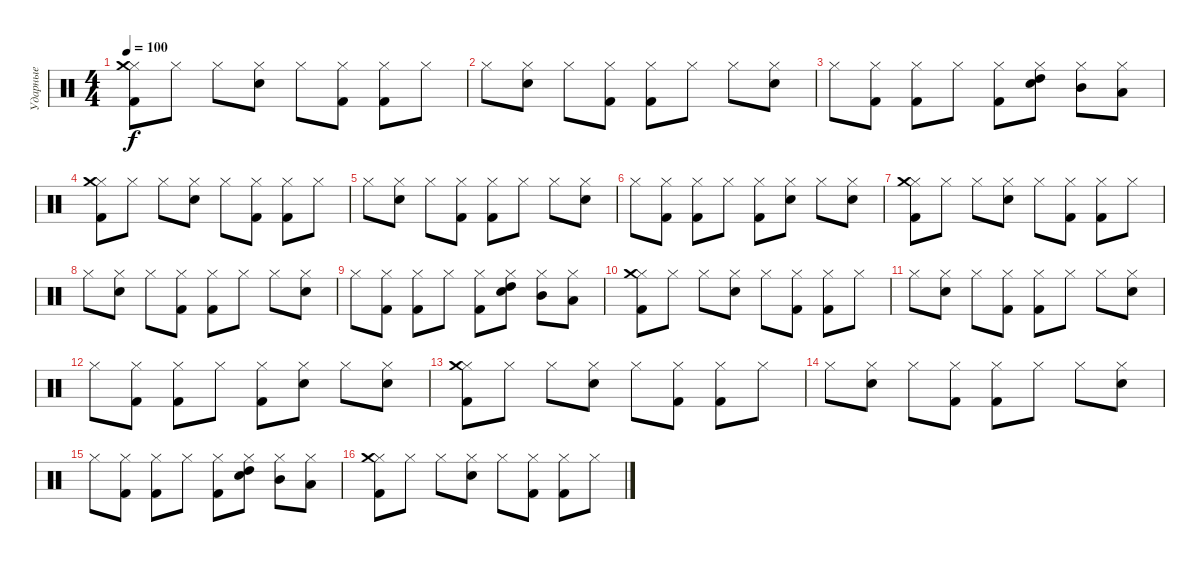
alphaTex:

\track ("Ударные" "Ударные") {instrument percussion}
\staff {score}
\articulation defaults
\ts (4 4)
\tempo 100
\clef neutral
\ks c
("Hi-Hat (closed)" "Kick (hit) 2" "Crash medium (hit)").8{dy f} "Hi-Hat (closed)".8 "Hi-Hat (closed)".8 ("Hi-Hat (closed)" "Electric Snare (hit)").8 "Hi-Hat (closed)".8 ("Hi-Hat (closed)" "Kick (hit) 2").8 ("Hi-Hat (closed)" "Kick (hit) 2").8 "Hi-Hat (closed)".8 |
"Hi-Hat (closed)".8 ("Hi-Hat (closed)" "Electric Snare (hit)").8 "Hi-Hat (closed)".8 ("Hi-Hat (closed)" "Kick (hit) 2").8 ("Hi-Hat (closed)" "Kick (hit) 2").8 "Hi-Hat (closed)".8 "Hi-Hat (closed)".8 ("Hi-Hat (closed)" "Electric Snare (hit)").8 |
"Hi-Hat (closed)".8 ("Hi-Hat (closed)" "Kick (hit) 2").8 ("Hi-Hat (closed)" "Kick (hit) 2").8 "Hi-Hat (closed)".8 ("Hi-Hat (closed)" "Kick (hit) 2").8 ("Hi-Hat (closed)" "Electric Snare (hit)" "High Tom (hit)").8 ("Hi-Hat (closed)" "Mid Tom (hit)").8 ("Hi-Hat (closed)" "Low Tom (hit)").8 |
("Hi-Hat (closed)" "Kick (hit) 2" "Crash medium (hit)").8 "Hi-Hat (closed)".8 "Hi-Hat (closed)".8 ("Hi-Hat (closed)" "Electric Snare (hit)").8 "Hi-Hat (closed)".8 ("Hi-Hat (closed)" "Kick (hit) 2").8 ("Hi-Hat (closed)" "Kick (hit) 2").8 "Hi-Hat (closed)".8 |
"Hi-Hat (closed)".8 ("Hi-Hat (closed)" "Electric Snare (hit)").8 "Hi-Hat (closed)".8 ("Hi-Hat (closed)" "Kick (hit) 2").8 ("Hi-Hat (closed)" "Kick (hit) 2").8 "Hi-Hat (closed)".8 "Hi-Hat (closed)".8 ("Hi-Hat (closed)" "Electric Snare (hit)").8 |
"Hi-Hat (closed)".8 ("Hi-Hat (closed)" "Kick (hit) 2").8 ("Hi-Hat (closed)" "Kick (hit) 2").8 "Hi-Hat (closed)".8 ("Hi-Hat (closed)" "Kick (hit) 2").8 ("Hi-Hat (closed)" "Electric Snare (hit)").8 "Hi-Hat (closed)".8 ("Hi-Hat (closed)" "Electric Snare (hit)").8 |
("Hi-Hat (closed)" "Kick (hit) 2" "Crash medium (hit)").8 "Hi-Hat (closed)".8 "Hi-Hat (closed)".8 ("Hi-Hat (closed)" "Electric Snare (hit)").8 "Hi-Hat (closed)".8 ("Hi-Hat (closed)" "Kick (hit) 2").8 ("Hi-Hat (closed)" "Kick (hit) 2").8 "Hi-Hat (closed)".8 |
"Hi-Hat (closed)".8 ("Hi-Hat (closed)" "Electric Snare (hit)").8 "Hi-Hat (closed)".8 ("Hi-Hat (closed)" "Kick (hit) 2").8 ("Hi-Hat (closed)" "Kick (hit) 2").8 "Hi-Hat (closed)".8 "Hi-Hat (closed)".8 ("Hi-Hat (closed)" "Electric Snare (hit)").8 |
"Hi-Hat (closed)".8 ("Hi-Hat (closed)" "Kick (hit) 2").8 ("Hi-Hat (closed)" "Kick (hit) 2").8 "Hi-Hat (closed)".8 ("Hi-Hat (closed)" "Kick (hit) 2").8 ("Hi-Hat (closed)" "Electric Snare (hit)" "High Tom (hit)").8 ("Hi-Hat (closed)" "Mid Tom (hit)").8 ("Hi-Hat (closed)" "Low Tom (hit)").8 |
("Hi-Hat (closed)" "Kick (hit) 2" "Crash medium (hit)").8 "Hi-Hat (closed)".8 "Hi-Hat (closed)".8 ("Hi-Hat (closed)" "Electric Snare (hit)").8 "Hi-Hat (closed)".8 ("Hi-Hat (closed)" "Kick (hit) 2").8 ("Hi-Hat (closed)" "Kick (hit) 2").8 "Hi-Hat (closed)".8 |
"Hi-Hat (closed)".8 ("Hi-Hat (closed)" "Electric Snare (hit)").8 "Hi-Hat (closed)".8 ("Hi-Hat (closed)" "Kick (hit) 2").8 ("Hi-Hat (closed)" "Kick (hit) 2").8 "Hi-Hat (closed)".8 "Hi-Hat (closed)".8 ("Hi-Hat (closed)" "Electric Snare (hit)").8 |
"Hi-Hat (closed)".8 ("Hi-Hat (closed)" "Kick (hit) 2").8 ("Hi-Hat (closed)" "Kick (hit) 2").8 "Hi-Hat (closed)".8 ("Hi-Hat (closed)" "Kick (hit) 2").8 ("Hi-Hat (closed)" "Electric Snare (hit)").8 "Hi-Hat (closed)".8 ("Hi-Hat (closed)" "Electric Snare (hit)").8 |
("Hi-Hat (closed)" "Kick (hit) 2" "Crash medium (hit)").8 "Hi-Hat (closed)".8 "Hi-Hat (closed)".8 ("Hi-Hat (closed)" "Electric Snare (hit)").8 "Hi-Hat (closed)".8 ("Hi-Hat (closed)" "Kick (hit) 2").8 ("Hi-Hat (closed)" "Kick (hit) 2").8 "Hi-Hat (closed)".8 |
"Hi-Hat (closed)".8 ("Hi-Hat (closed)" "Electric Snare (hit)").8 "Hi-Hat (closed)".8 ("Hi-Hat (closed)" "Kick (hit) 2").8 ("Hi-Hat (closed)" "Kick (hit) 2").8 "Hi-Hat (closed)".8 "Hi-Hat (closed)".8 ("Hi-Hat (closed)" "Electric Snare (hit)").8 |
"Hi-Hat (closed)".8 ("Hi-Hat (closed)" "Kick (hit) 2").8 ("Hi-Hat (closed)" "Kick (hit) 2").8 "Hi-Hat (closed)".8 ("Hi-Hat (closed)" "Kick (hit) 2").8 ("Hi-Hat (closed)" "Electric Snare (hit)" "High Tom (hit)").8 ("Hi-Hat (closed)" "Mid Tom (hit)").8 ("Hi-Hat (closed)" "Low Tom (hit)").8 |
("Hi-Hat (closed)" "Kick (hit) 2" "Crash medium (hit)").8 "Hi-Hat (closed)".8 "Hi-Hat (closed)".8 ("Hi-Hat (closed)" "Electric Snare (hit)").8 "Hi-Hat (closed)".8 ("Hi-Hat (closed)" "Kick (hit) 2").8 ("Hi-Hat (closed)" "Kick (hit) 2").8 "Hi-Hat (closed)".8
